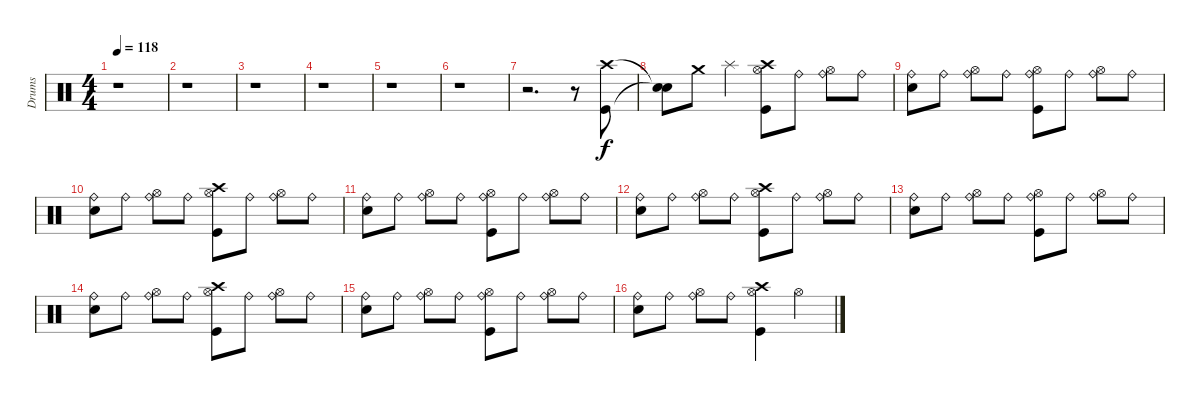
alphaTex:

\track ("Drums" "Drums") {instrument percussion}
\staff {score}
\articulation defaults
\ts (4 4)
\tempo 118
\clef neutral
\ks c
r.1{dy f} |
r.1 |
r.1 |
r.1 |
r.1 |
r.1 |
r.2{d} r.8 ("Kick (hit)" "Crash high (hit)").8 |
("Snare (hit)"{t} "Snare (hit)"{t}).8 "Crash medium (hit)".8 "Splash (hit)".4 ("Kick (hit)" "Hi-Hat (open)" "Crash high (hit)").8 "Ride (bell)".8 ("Hi-Hat (open)" "Ride (bell)").8 "Ride (bell)".8 |
("Snare (hit) 2" "Ride (bell)").8 "Ride (bell)".8 ("Hi-Hat (open)" "Ride (bell)").8 "Ride (bell)".8 ("Kick (hit)" "Hi-Hat (open)" "Ride (bell)").8 "Ride (bell)".8 ("Hi-Hat (open)" "Ride (bell)").8 "Ride (bell)".8 |
("Snare (hit) 2" "Ride (bell)").8 "Ride (bell)".8 ("Hi-Hat (open)" "Ride (bell)").8 "Ride (bell)".8 ("Kick (hit)" "Hi-Hat (open)" "Crash high (hit)").8 "Ride (bell)".8 ("Hi-Hat (open)" "Ride (bell)").8 "Ride (bell)".8 |
("Snare (hit) 2" "Ride (bell)").8 "Ride (bell)".8 ("Hi-Hat (open)" "Ride (bell)").8 "Ride (bell)".8 ("Kick (hit)" "Hi-Hat (open)" "Ride (bell)").8 "Ride (bell)".8 ("Hi-Hat (open)" "Ride (bell)").8 "Ride (bell)".8 |
("Snare (hit) 2" "Ride (bell)").8 "Ride (bell)".8 ("Hi-Hat (open)" "Ride (bell)").8 "Ride (bell)".8 ("Kick (hit)" "Hi-Hat (open)" "Crash high (hit)").8 "Ride (bell)".8 ("Hi-Hat (open)" "Ride (bell)").8 "Ride (bell)".8 |
("Snare (hit) 2" "Ride (bell)").8 "Ride (bell)".8 ("Hi-Hat (open)" "Ride (bell)").8 "Ride (bell)".8 ("Kick (hit)" "Hi-Hat (open)" "Ride (bell)").8 "Ride (bell)".8 ("Hi-Hat (open)" "Ride (bell)").8 "Ride (bell)".8 |
("Snare (hit) 2" "Ride (bell)").8 "Ride (bell)".8 ("Hi-Hat (open)" "Ride (bell)").8 "Ride (bell)".8 ("Kick (hit)" "Hi-Hat (open)" "Crash high (hit)").8 "Ride (bell)".8 ("Hi-Hat (open)" "Ride (bell)").8 "Ride (bell)".8 |
("Snare (hit) 2" "Ride (bell)").8 "Ride (bell)".8 ("Hi-Hat (open)" "Ride (bell)").8 "Ride (bell)".8 ("Kick (hit)" "Hi-Hat (open)" "Ride (bell)").8 "Ride (bell)".8 ("Hi-Hat (open)" "Ride (bell)").8 "Ride (bell)".8 |
("Snare (hit) 2" "Ride (bell)").8 "Ride (bell)".8 ("Hi-Hat (open)" "Ride (bell)").8 "Ride (bell)".8 ("Kick (hit)" "Hi-Hat (open)" "Crash high (hit)").4 "Hi-Hat (open)".4
